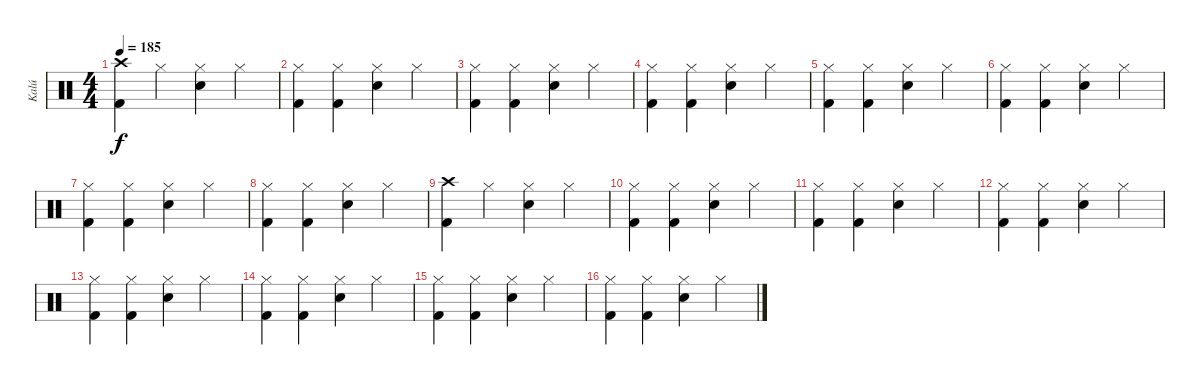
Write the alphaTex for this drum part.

\track ("Kalú" "Kalú") {instrument percussion}
\staff {score}
\articulation defaults
\ts (4 4)
\tempo 185
\clef neutral
\ks c
("Crash high (hit)" "Kick (hit) 2").4{dy f} "Hi-Hat (closed)".4 ("Hi-Hat (closed)" "Snare (hit) 2").4 "Hi-Hat (closed)".4 |
("Hi-Hat (closed)" "Kick (hit) 2").4 ("Hi-Hat (closed)" "Kick (hit) 2").4 ("Hi-Hat (closed)" "Snare (hit) 2").4 "Hi-Hat (closed)".4 |
("Hi-Hat (closed)" "Kick (hit) 2").4 ("Hi-Hat (closed)" "Kick (hit) 2").4 ("Hi-Hat (closed)" "Snare (hit) 2").4 "Hi-Hat (closed)".4 |
("Hi-Hat (closed)" "Kick (hit) 2").4 ("Hi-Hat (closed)" "Kick (hit) 2").4 ("Hi-Hat (closed)" "Snare (hit) 2").4 "Hi-Hat (closed)".4 |
("Hi-Hat (closed)" "Kick (hit) 2").4 ("Hi-Hat (closed)" "Kick (hit) 2").4 ("Hi-Hat (closed)" "Snare (hit) 2").4 "Hi-Hat (closed)".4 |
("Hi-Hat (closed)" "Kick (hit) 2").4 ("Hi-Hat (closed)" "Kick (hit) 2").4 ("Hi-Hat (closed)" "Snare (hit) 2").4 "Hi-Hat (closed)".4 |
("Hi-Hat (closed)" "Kick (hit) 2").4 ("Hi-Hat (closed)" "Kick (hit) 2").4 ("Hi-Hat (closed)" "Snare (hit) 2").4 "Hi-Hat (closed)".4 |
("Hi-Hat (closed)" "Kick (hit) 2").4 ("Hi-Hat (closed)" "Kick (hit) 2").4 ("Hi-Hat (closed)" "Snare (hit) 2").4 "Hi-Hat (closed)".4 |
("Crash high (hit)" "Kick (hit) 2").4 "Hi-Hat (closed)".4 ("Hi-Hat (closed)" "Snare (hit) 2").4 "Hi-Hat (closed)".4 |
("Hi-Hat (closed)" "Kick (hit) 2").4 ("Hi-Hat (closed)" "Kick (hit) 2").4 ("Hi-Hat (closed)" "Snare (hit) 2").4 "Hi-Hat (closed)".4 |
("Hi-Hat (closed)" "Kick (hit) 2").4 ("Hi-Hat (closed)" "Kick (hit) 2").4 ("Hi-Hat (closed)" "Snare (hit) 2").4 "Hi-Hat (closed)".4 |
("Hi-Hat (closed)" "Kick (hit) 2").4 ("Hi-Hat (closed)" "Kick (hit) 2").4 ("Hi-Hat (closed)" "Snare (hit) 2").4 "Hi-Hat (closed)".4 |
("Hi-Hat (closed)" "Kick (hit) 2").4 ("Hi-Hat (closed)" "Kick (hit) 2").4 ("Hi-Hat (closed)" "Snare (hit) 2").4 "Hi-Hat (closed)".4 |
("Hi-Hat (closed)" "Kick (hit) 2").4 ("Hi-Hat (closed)" "Kick (hit) 2").4 ("Hi-Hat (closed)" "Snare (hit) 2").4 "Hi-Hat (closed)".4 |
("Hi-Hat (closed)" "Kick (hit) 2").4 ("Hi-Hat (closed)" "Kick (hit) 2").4 ("Hi-Hat (closed)" "Snare (hit) 2").4 "Hi-Hat (closed)".4 |
("Hi-Hat (closed)" "Kick (hit) 2").4 ("Hi-Hat (closed)" "Kick (hit) 2").4 ("Hi-Hat (closed)" "Snare (hit) 2").4 "Hi-Hat (closed)".4
